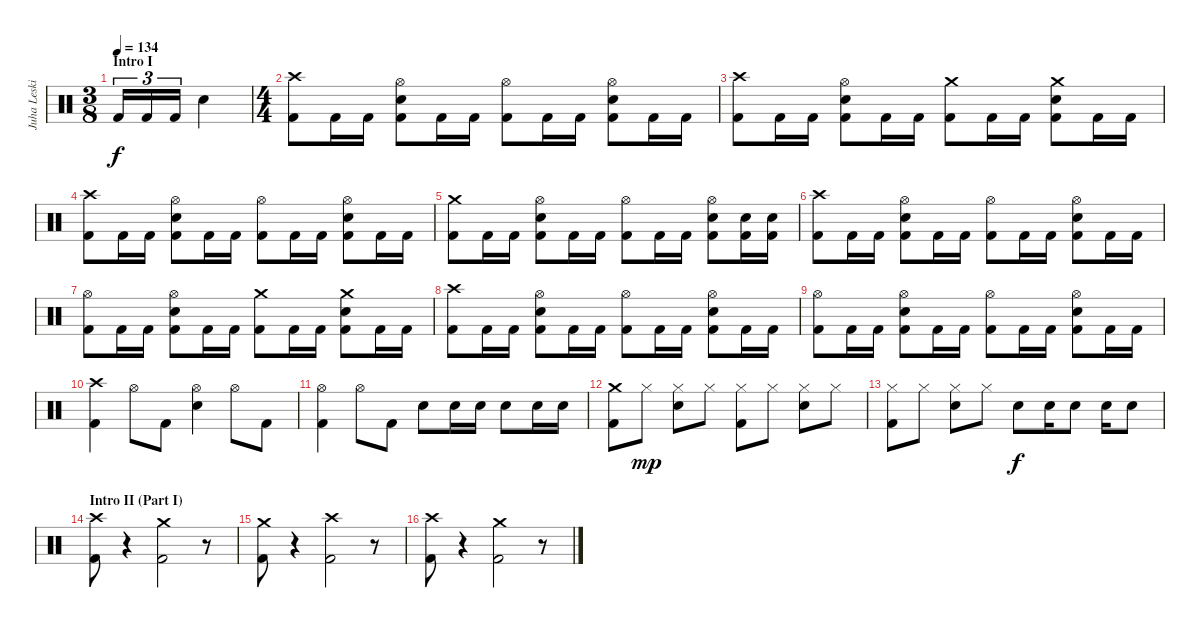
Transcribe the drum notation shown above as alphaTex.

\track ("Juha Leskinen - Drums" "Juha Leski") {instrument percussion}
\staff {score}
\articulation defaults
\ts (3 8)
\section ("" "Intro I")
\tempo 134
\clef neutral
\ks c "Kick (hit) 2".16{tu (3 2) dy f} "Kick (hit) 2".16{tu (3 2)} "Kick (hit) 2".16{tu (3 2)} "Electric Snare (hit)".4
|
\ts (4 4)
("Crash high (hit)" "Kick (hit) 2").8 "Kick (hit) 2".16 "Kick (hit) 2".16 ("Hi-Hat (open)" "Electric Snare (hit)" "Kick (hit) 2").8 "Kick (hit) 2".16 "Kick (hit) 2".16 ("Hi-Hat (open)" "Kick (hit) 2").8 "Kick (hit) 2".16 "Kick (hit) 2".16 ("Hi-Hat (open)" "Electric Snare (hit)" "Kick (hit) 2").8 "Kick (hit) 2".16 "Kick (hit) 2".16 |
("Crash high (hit)" "Kick (hit) 2").8 "Kick (hit) 2".16 "Kick (hit) 2".16 ("Hi-Hat (open)" "Electric Snare (hit)" "Kick (hit) 2").8 "Kick (hit) 2".16 "Kick (hit) 2".16 ("Crash medium (hit)" "Kick (hit) 2").8 "Kick (hit) 2".16 "Kick (hit) 2".16 ("Crash medium (hit)" "Electric Snare (hit)" "Kick (hit) 2").8 "Kick (hit) 2".16 "Kick (hit) 2".16 |
("Crash high (hit)" "Kick (hit) 2").8 "Kick (hit) 2".16 "Kick (hit) 2".16 ("Hi-Hat (open)" "Electric Snare (hit)" "Kick (hit) 2").8 "Kick (hit) 2".16 "Kick (hit) 2".16 ("Hi-Hat (open)" "Kick (hit) 2").8 "Kick (hit) 2".16 "Kick (hit) 2".16 ("Hi-Hat (open)" "Electric Snare (hit)" "Kick (hit) 2").8 "Kick (hit) 2".16 "Kick (hit) 2".16 |
("Crash medium (hit)" "Kick (hit) 2").8 "Kick (hit) 2".16 "Kick (hit) 2".16 ("Hi-Hat (open)" "Electric Snare (hit)" "Kick (hit) 2").8 "Kick (hit) 2".16 "Kick (hit) 2".16 ("Hi-Hat (open)" "Kick (hit) 2").8 "Kick (hit) 2".16 "Kick (hit) 2".16 ("Hi-Hat (open)" "Electric Snare (hit)" "Kick (hit) 2").8 ("Electric Snare (hit)" "Kick (hit) 2").16 ("Electric Snare (hit)" "Kick (hit) 2").16 |
("Crash high (hit)" "Kick (hit) 2").8 "Kick (hit) 2".16 "Kick (hit) 2".16 ("Hi-Hat (open)" "Electric Snare (hit)" "Kick (hit) 2").8 "Kick (hit) 2".16 "Kick (hit) 2".16 ("Hi-Hat (open)" "Kick (hit) 2").8 "Kick (hit) 2".16 "Kick (hit) 2".16 ("Hi-Hat (open)" "Electric Snare (hit)" "Kick (hit) 2").8 "Kick (hit) 2".16 "Kick (hit) 2".16 |
("Hi-Hat (open)" "Kick (hit) 2").8 "Kick (hit) 2".16 "Kick (hit) 2".16 ("Hi-Hat (open)" "Electric Snare (hit)" "Kick (hit) 2").8 "Kick (hit) 2".16 "Kick (hit) 2".16 ("Crash medium (hit)" "Kick (hit) 2").8 "Kick (hit) 2".16 "Kick (hit) 2".16 ("Crash medium (hit)" "Electric Snare (hit)" "Kick (hit) 2").8 "Kick (hit) 2".16 "Kick (hit) 2".16 |
("Crash high (hit)" "Kick (hit) 2").8 "Kick (hit) 2".16 "Kick (hit) 2".16 ("Hi-Hat (open)" "Electric Snare (hit)" "Kick (hit) 2").8 "Kick (hit) 2".16 "Kick (hit) 2".16 ("Hi-Hat (open)" "Kick (hit) 2").8 "Kick (hit) 2".16 "Kick (hit) 2".16 ("Hi-Hat (open)" "Electric Snare (hit)" "Kick (hit) 2").8 "Kick (hit) 2".16 "Kick (hit) 2".16 |
("Hi-Hat (open)" "Kick (hit) 2").8 "Kick (hit) 2".16 "Kick (hit) 2".16 ("Hi-Hat (open)" "Electric Snare (hit)" "Kick (hit) 2").8 "Kick (hit) 2".16 "Kick (hit) 2".16 ("Hi-Hat (open)" "Kick (hit) 2").8 "Kick (hit) 2".16 "Kick (hit) 2".16 ("Hi-Hat (open)" "Electric Snare (hit)" "Kick (hit) 2").8 "Kick (hit) 2".16 "Kick (hit) 2".16 |
("Crash high (hit)" "Kick (hit) 2").4 "Hi-Hat (open)".8 "Kick (hit) 2".8 ("Hi-Hat (open)" "Electric Snare (hit)").4 "Hi-Hat (open)".8 "Kick (hit) 2".8 |
("Hi-Hat (open)" "Kick (hit) 2").4 "Hi-Hat (open)".8 "Kick (hit) 2".8 "Electric Snare (hit)".8 "Electric Snare (hit)".16 "Electric Snare (hit)".16 "Electric Snare (hit)".8 "Electric Snare (hit)".16 "Electric Snare (hit)".16 |
("Crash medium (hit)" "Kick (hit) 2").8 "Hi-Hat (closed)".8{dy mp} ("Hi-Hat (closed)" "Electric Snare (hit)").8 "Hi-Hat (closed)".8 ("Hi-Hat (closed)" "Kick (hit) 2").8 "Hi-Hat (closed)".8 ("Hi-Hat (closed)" "Electric Snare (hit)").8 "Hi-Hat (closed)".8 |
("Hi-Hat (closed)" "Kick (hit) 2").8 "Hi-Hat (closed)".8 ("Hi-Hat (closed)" "Electric Snare (hit)").8 "Hi-Hat (closed)".8 "Electric Snare (hit)".8{dy f} "Electric Snare (hit)".16 "Electric Snare (hit)".8 "Electric Snare (hit)".16 "Electric Snare (hit)".8 |
\section ("" "Intro II (Part I)")
("Crash high (hit)" "Kick (hit) 2").8 r.4 ("Crash medium (hit)" "Kick (hit) 2").2 r.8 |
("Crash medium (hit)" "Kick (hit) 2").8 r.4 ("Crash high (hit)" "Kick (hit) 2").2 r.8 |
("Crash high (hit)" "Kick (hit) 2").8 r.4 ("Crash medium (hit)" "Kick (hit) 2").2 r.8
